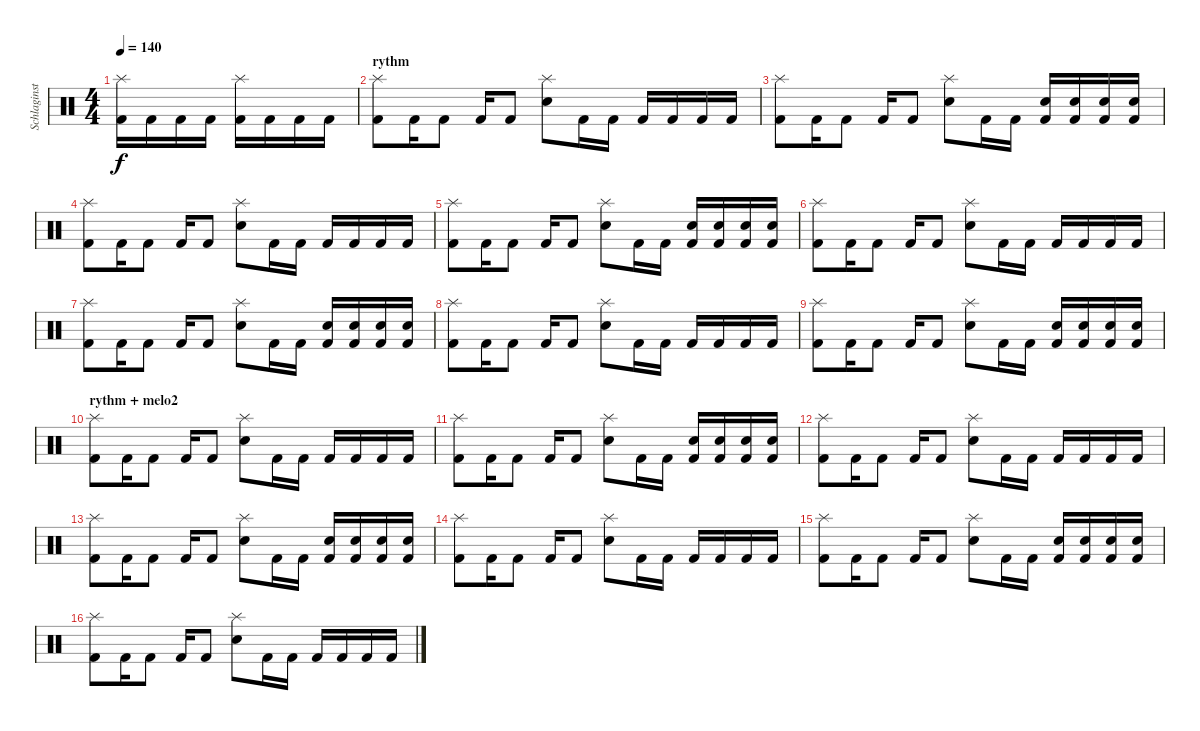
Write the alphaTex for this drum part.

\track ("Schlaginstrumente - Auswahl" "Schlaginst") {instrument percussion}
\staff {score}
\articulation defaults
\ts (4 4)
\tempo 140
\clef neutral
\ks c
("Splash (hit)" "Kick (hit) 2").16{dy f} "Kick (hit) 2".16 "Kick (hit) 2".16 "Kick (hit) 2".16 ("Splash (hit)" "Kick (hit) 2").16 "Kick (hit) 2".16 "Kick (hit) 2".16 "Kick (hit) 2".16 |
\section ("" "rythm")
("Splash (hit)" "Kick (hit) 2").8 "Kick (hit) 2".16 "Kick (hit) 2".8 "Kick (hit) 2".16 "Kick (hit) 2".8 ("Electric Snare (hit)" "Splash (hit)").8 "Kick (hit) 2".16 "Kick (hit) 2".16 "Kick (hit) 2".16 "Kick (hit) 2".16 "Kick (hit) 2".16 "Kick (hit) 2".16 |
("Splash (hit)" "Kick (hit) 2").8 "Kick (hit) 2".16 "Kick (hit) 2".8 "Kick (hit) 2".16 "Kick (hit) 2".8 ("Electric Snare (hit)" "Splash (hit)").8 "Kick (hit) 2".16 "Kick (hit) 2".16 ("Electric Snare (hit)" "Kick (hit) 2").16 ("Electric Snare (hit)" "Kick (hit) 2").16 ("Electric Snare (hit)" "Kick (hit) 2").16 ("Electric Snare (hit)" "Kick (hit) 2").16 |
("Splash (hit)" "Kick (hit) 2").8 "Kick (hit) 2".16 "Kick (hit) 2".8 "Kick (hit) 2".16 "Kick (hit) 2".8 ("Electric Snare (hit)" "Splash (hit)").8 "Kick (hit) 2".16 "Kick (hit) 2".16 "Kick (hit) 2".16 "Kick (hit) 2".16 "Kick (hit) 2".16 "Kick (hit) 2".16 |
("Splash (hit)" "Kick (hit) 2").8 "Kick (hit) 2".16 "Kick (hit) 2".8 "Kick (hit) 2".16 "Kick (hit) 2".8 ("Electric Snare (hit)" "Splash (hit)").8 "Kick (hit) 2".16 "Kick (hit) 2".16 ("Electric Snare (hit)" "Kick (hit) 2").16 ("Electric Snare (hit)" "Kick (hit) 2").16 ("Electric Snare (hit)" "Kick (hit) 2").16 ("Electric Snare (hit)" "Kick (hit) 2").16 |
("Splash (hit)" "Kick (hit) 2").8 "Kick (hit) 2".16 "Kick (hit) 2".8 "Kick (hit) 2".16 "Kick (hit) 2".8 ("Electric Snare (hit)" "Splash (hit)").8 "Kick (hit) 2".16 "Kick (hit) 2".16 "Kick (hit) 2".16 "Kick (hit) 2".16 "Kick (hit) 2".16 "Kick (hit) 2".16 |
("Splash (hit)" "Kick (hit) 2").8 "Kick (hit) 2".16 "Kick (hit) 2".8 "Kick (hit) 2".16 "Kick (hit) 2".8 ("Electric Snare (hit)" "Splash (hit)").8 "Kick (hit) 2".16 "Kick (hit) 2".16 ("Electric Snare (hit)" "Kick (hit) 2").16 ("Electric Snare (hit)" "Kick (hit) 2").16 ("Electric Snare (hit)" "Kick (hit) 2").16 ("Electric Snare (hit)" "Kick (hit) 2").16 |
("Splash (hit)" "Kick (hit) 2").8 "Kick (hit) 2".16 "Kick (hit) 2".8 "Kick (hit) 2".16 "Kick (hit) 2".8 ("Electric Snare (hit)" "Splash (hit)").8 "Kick (hit) 2".16 "Kick (hit) 2".16 "Kick (hit) 2".16 "Kick (hit) 2".16 "Kick (hit) 2".16 "Kick (hit) 2".16 |
("Splash (hit)" "Kick (hit) 2").8 "Kick (hit) 2".16 "Kick (hit) 2".8 "Kick (hit) 2".16 "Kick (hit) 2".8 ("Electric Snare (hit)" "Splash (hit)").8 "Kick (hit) 2".16 "Kick (hit) 2".16 ("Electric Snare (hit)" "Kick (hit) 2").16 ("Electric Snare (hit)" "Kick (hit) 2").16 ("Electric Snare (hit)" "Kick (hit) 2").16 ("Electric Snare (hit)" "Kick (hit) 2").16 |
\section ("" "rythm + melo2")
("Splash (hit)" "Kick (hit) 2").8 "Kick (hit) 2".16 "Kick (hit) 2".8 "Kick (hit) 2".16 "Kick (hit) 2".8 ("Electric Snare (hit)" "Splash (hit)").8 "Kick (hit) 2".16 "Kick (hit) 2".16 "Kick (hit) 2".16 "Kick (hit) 2".16 "Kick (hit) 2".16 "Kick (hit) 2".16 |
("Splash (hit)" "Kick (hit) 2").8 "Kick (hit) 2".16 "Kick (hit) 2".8 "Kick (hit) 2".16 "Kick (hit) 2".8 ("Electric Snare (hit)" "Splash (hit)").8 "Kick (hit) 2".16 "Kick (hit) 2".16 ("Electric Snare (hit)" "Kick (hit) 2").16 ("Electric Snare (hit)" "Kick (hit) 2").16 ("Electric Snare (hit)" "Kick (hit) 2").16 ("Electric Snare (hit)" "Kick (hit) 2").16 |
("Splash (hit)" "Kick (hit) 2").8 "Kick (hit) 2".16 "Kick (hit) 2".8 "Kick (hit) 2".16 "Kick (hit) 2".8 ("Electric Snare (hit)" "Splash (hit)").8 "Kick (hit) 2".16 "Kick (hit) 2".16 "Kick (hit) 2".16 "Kick (hit) 2".16 "Kick (hit) 2".16 "Kick (hit) 2".16 |
("Splash (hit)" "Kick (hit) 2").8 "Kick (hit) 2".16 "Kick (hit) 2".8 "Kick (hit) 2".16 "Kick (hit) 2".8 ("Electric Snare (hit)" "Splash (hit)").8 "Kick (hit) 2".16 "Kick (hit) 2".16 ("Electric Snare (hit)" "Kick (hit) 2").16 ("Electric Snare (hit)" "Kick (hit) 2").16 ("Electric Snare (hit)" "Kick (hit) 2").16 ("Electric Snare (hit)" "Kick (hit) 2").16 |
("Splash (hit)" "Kick (hit) 2").8 "Kick (hit) 2".16 "Kick (hit) 2".8 "Kick (hit) 2".16 "Kick (hit) 2".8 ("Electric Snare (hit)" "Splash (hit)").8 "Kick (hit) 2".16 "Kick (hit) 2".16 "Kick (hit) 2".16 "Kick (hit) 2".16 "Kick (hit) 2".16 "Kick (hit) 2".16 |
("Splash (hit)" "Kick (hit) 2").8 "Kick (hit) 2".16 "Kick (hit) 2".8 "Kick (hit) 2".16 "Kick (hit) 2".8 ("Electric Snare (hit)" "Splash (hit)").8 "Kick (hit) 2".16 "Kick (hit) 2".16 ("Electric Snare (hit)" "Kick (hit) 2").16 ("Electric Snare (hit)" "Kick (hit) 2").16 ("Electric Snare (hit)" "Kick (hit) 2").16 ("Electric Snare (hit)" "Kick (hit) 2").16 |
("Splash (hit)" "Kick (hit) 2").8 "Kick (hit) 2".16 "Kick (hit) 2".8 "Kick (hit) 2".16 "Kick (hit) 2".8 ("Electric Snare (hit)" "Splash (hit)").8 "Kick (hit) 2".16 "Kick (hit) 2".16 "Kick (hit) 2".16 "Kick (hit) 2".16 "Kick (hit) 2".16 "Kick (hit) 2".16
